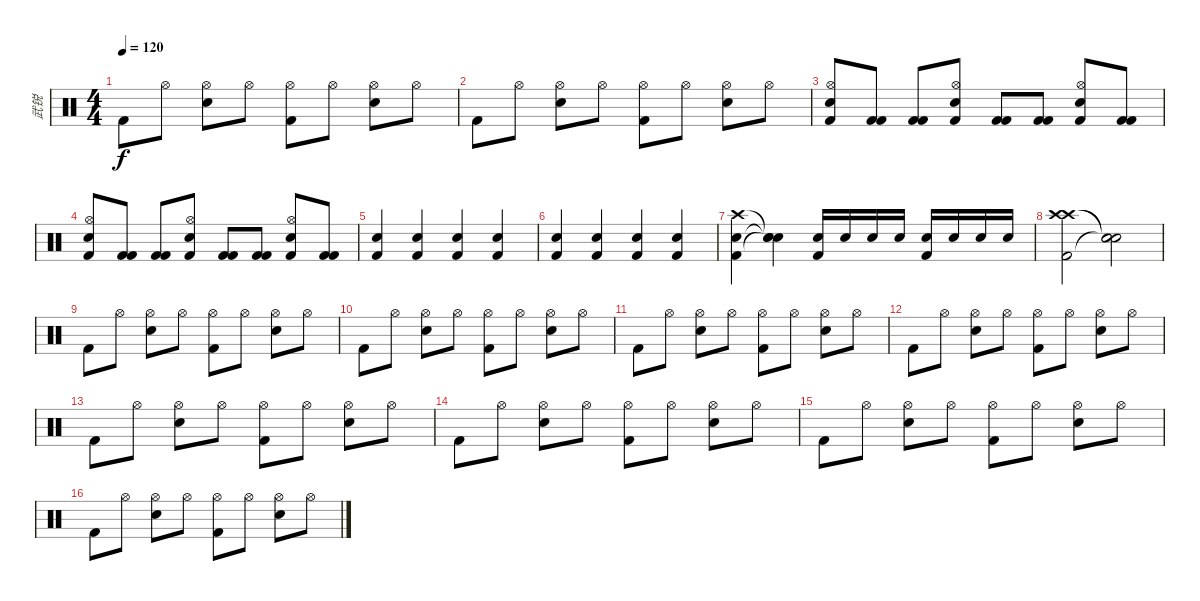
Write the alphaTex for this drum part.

\track ("武锐" "武锐") {instrument percussion}
\staff {score}
\articulation defaults
\ts (4 4)
\tempo 120
\clef neutral
\ks c "Kick (hit) 2".8{dy f} "Hi-Hat (open)".8
("Hi-Hat (open)" "Snare (hit) 2").8 "Hi-Hat (open)".8 ("Hi-Hat (open)" "Kick (hit) 2").8 "Hi-Hat (open)".8 ("Hi-Hat (open)" "Snare (hit) 2").8 "Hi-Hat (open)".8 |
"Kick (hit) 2".8 "Hi-Hat (open)".8 ("Hi-Hat (open)" "Snare (hit) 2").8 "Hi-Hat (open)".8 ("Hi-Hat (open)" "Kick (hit) 2").8 "Hi-Hat (open)".8 ("Hi-Hat (open)" "Snare (hit) 2").8 "Hi-Hat (open)".8 |
("Hi-Hat (open)" "Snare (hit) 2" "Kick (hit) 2").8 ("Kick (hit) 2" "Kick (hit) 2").8 ("Kick (hit) 2" "Kick (hit) 2").8 ("Hi-Hat (open)" "Snare (hit) 2" "Kick (hit) 2").8 ("Kick (hit) 2" "Kick (hit) 2").8 ("Kick (hit) 2" "Kick (hit) 2").8 ("Hi-Hat (open)" "Snare (hit) 2" "Kick (hit) 2").8 ("Kick (hit) 2" "Kick (hit) 2").8 |
("Hi-Hat (open)" "Snare (hit) 2" "Kick (hit) 2").8 ("Kick (hit) 2" "Kick (hit) 2").8 ("Kick (hit) 2" "Kick (hit) 2").8 ("Hi-Hat (open)" "Snare (hit) 2" "Kick (hit) 2").8 ("Kick (hit) 2" "Kick (hit) 2").8 ("Kick (hit) 2" "Kick (hit) 2").8 ("Hi-Hat (open)" "Snare (hit) 2" "Kick (hit) 2").8 ("Kick (hit) 2" "Kick (hit) 2").8 |
("Kick (hit) 2" "Snare (hit) 2").4 ("Kick (hit) 2" "Snare (hit) 2").4 ("Kick (hit) 2" "Snare (hit) 2").4 ("Kick (hit) 2" "Snare (hit) 2").4 |
("Kick (hit) 2" "Snare (hit) 2").4 ("Kick (hit) 2" "Snare (hit) 2").4 ("Kick (hit) 2" "Snare (hit) 2").4 ("Kick (hit) 2" "Snare (hit) 2").4 |
("Crash high (hit)" "Snare (hit) 2" "Kick (hit) 2").4 ("Snare (hit)"{t} "Snare (hit)"{t} "Snare (hit)"{t}).4 ("Kick (hit) 2" "Snare (hit) 2").16 "Snare (hit) 2".16 "Snare (hit) 2".16 "Snare (hit) 2".16 ("Kick (hit) 2" "Snare (hit) 2").16 "Snare (hit) 2".16 "Snare (hit) 2".16 "Snare (hit) 2".16 |
("Crash high (hit)" "Crash high (hit)" "Kick (hit) 2").2 ("Snare (hit)"{t} "Snare (hit)"{t} "Snare (hit)"{t}).2 |
"Kick (hit) 2".8 "Hi-Hat (open)".8 ("Hi-Hat (open)" "Snare (hit) 2").8 "Hi-Hat (open)".8 ("Hi-Hat (open)" "Kick (hit) 2").8 "Hi-Hat (open)".8 ("Hi-Hat (open)" "Snare (hit) 2").8 "Hi-Hat (open)".8 |
"Kick (hit) 2".8 "Hi-Hat (open)".8 ("Hi-Hat (open)" "Snare (hit) 2").8 "Hi-Hat (open)".8 ("Hi-Hat (open)" "Kick (hit) 2").8 "Hi-Hat (open)".8 ("Hi-Hat (open)" "Snare (hit) 2").8 "Hi-Hat (open)".8 |
"Kick (hit) 2".8 "Hi-Hat (open)".8 ("Hi-Hat (open)" "Snare (hit) 2").8 "Hi-Hat (open)".8 ("Hi-Hat (open)" "Kick (hit) 2").8 "Hi-Hat (open)".8 ("Hi-Hat (open)" "Snare (hit) 2").8 "Hi-Hat (open)".8 |
"Kick (hit) 2".8 "Hi-Hat (open)".8 ("Hi-Hat (open)" "Snare (hit) 2").8 "Hi-Hat (open)".8 ("Hi-Hat (open)" "Kick (hit) 2").8 "Hi-Hat (open)".8 ("Hi-Hat (open)" "Snare (hit) 2").8 "Hi-Hat (open)".8 |
"Kick (hit) 2".8 "Hi-Hat (open)".8 ("Hi-Hat (open)" "Snare (hit) 2").8 "Hi-Hat (open)".8 ("Hi-Hat (open)" "Kick (hit) 2").8 "Hi-Hat (open)".8 ("Hi-Hat (open)" "Snare (hit) 2").8 "Hi-Hat (open)".8 |
"Kick (hit) 2".8 "Hi-Hat (open)".8 ("Hi-Hat (open)" "Snare (hit) 2").8 "Hi-Hat (open)".8 ("Hi-Hat (open)" "Kick (hit) 2").8 "Hi-Hat (open)".8 ("Hi-Hat (open)" "Snare (hit) 2").8 "Hi-Hat (open)".8 |
"Kick (hit) 2".8 "Hi-Hat (open)".8 ("Hi-Hat (open)" "Snare (hit) 2").8 "Hi-Hat (open)".8 ("Hi-Hat (open)" "Kick (hit) 2").8 "Hi-Hat (open)".8 ("Hi-Hat (open)" "Snare (hit) 2").8 "Hi-Hat (open)".8 |
"Kick (hit) 2".8 "Hi-Hat (open)".8 ("Hi-Hat (open)" "Snare (hit) 2").8 "Hi-Hat (open)".8 ("Hi-Hat (open)" "Kick (hit) 2").8 "Hi-Hat (open)".8 ("Hi-Hat (open)" "Snare (hit) 2").8 "Hi-Hat (open)".8
